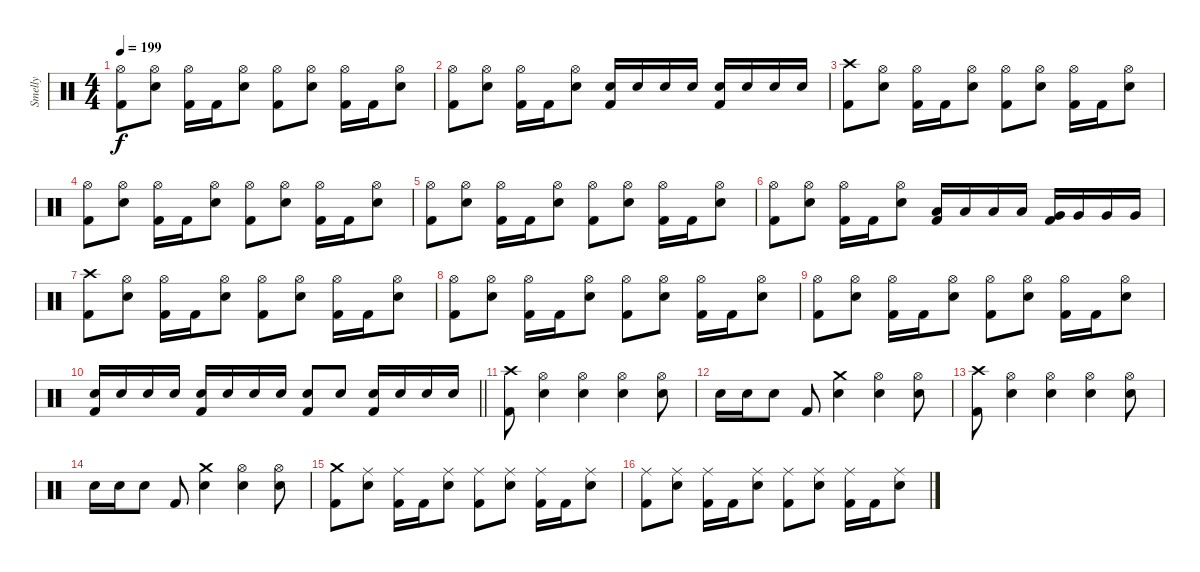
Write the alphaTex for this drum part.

\track ("Smelly" "Smelly") {instrument percussion}
\staff {score}
\articulation defaults
\ts (4 4)
\tempo 199
\clef neutral
\ks c
("Hi-Hat (open)" "Kick (hit) 2").8{dy f} ("Hi-Hat (open)" "Electric Snare (hit)").8 ("Hi-Hat (open)" "Kick (hit) 2").16 "Kick (hit) 2".16 ("Hi-Hat (open)" "Electric Snare (hit)").8 ("Hi-Hat (open)" "Kick (hit) 2").8 ("Hi-Hat (open)" "Electric Snare (hit)").8 ("Hi-Hat (open)" "Kick (hit) 2").16 "Kick (hit) 2".16 ("Hi-Hat (open)" "Electric Snare (hit)").8 |
("Hi-Hat (open)" "Kick (hit) 2").8 ("Hi-Hat (open)" "Electric Snare (hit)").8 ("Hi-Hat (open)" "Kick (hit) 2").16 "Kick (hit) 2".16 ("Hi-Hat (open)" "Electric Snare (hit)").8 ("Electric Snare (hit)" "Kick (hit) 2").16 "Electric Snare (hit)".16 "Electric Snare (hit)".16 "Electric Snare (hit)".16 ("Electric Snare (hit)" "Kick (hit) 2").16 "Electric Snare (hit)".16 "Electric Snare (hit)".16 "Electric Snare (hit)".16 |
("Crash high (hit)" "Kick (hit) 2").8 ("Hi-Hat (open)" "Electric Snare (hit)").8 ("Hi-Hat (open)" "Kick (hit) 2").16 "Kick (hit) 2".16 ("Hi-Hat (open)" "Electric Snare (hit)").8 ("Hi-Hat (open)" "Kick (hit) 2").8 ("Hi-Hat (open)" "Electric Snare (hit)").8 ("Hi-Hat (open)" "Kick (hit) 2").16 "Kick (hit) 2".16 ("Hi-Hat (open)" "Electric Snare (hit)").8 |
("Hi-Hat (open)" "Kick (hit) 2").8 ("Hi-Hat (open)" "Electric Snare (hit)").8 ("Hi-Hat (open)" "Kick (hit) 2").16 "Kick (hit) 2".16 ("Hi-Hat (open)" "Electric Snare (hit)").8 ("Hi-Hat (open)" "Kick (hit) 2").8 ("Hi-Hat (open)" "Electric Snare (hit)").8 ("Hi-Hat (open)" "Kick (hit) 2").16 "Kick (hit) 2".16 ("Hi-Hat (open)" "Electric Snare (hit)").8 |
("Hi-Hat (open)" "Kick (hit) 2").8 ("Hi-Hat (open)" "Electric Snare (hit)").8 ("Hi-Hat (open)" "Kick (hit) 2").16 "Kick (hit) 2".16 ("Hi-Hat (open)" "Electric Snare (hit)").8 ("Hi-Hat (open)" "Kick (hit) 2").8 ("Hi-Hat (open)" "Electric Snare (hit)").8 ("Hi-Hat (open)" "Kick (hit) 2").16 "Kick (hit) 2".16 ("Hi-Hat (open)" "Electric Snare (hit)").8 |
("Hi-Hat (open)" "Kick (hit) 2").8 ("Hi-Hat (open)" "Electric Snare (hit)").8 ("Hi-Hat (open)" "Kick (hit) 2").16 "Kick (hit) 2".16 ("Hi-Hat (open)" "Electric Snare (hit)").8 ("Low Tom (hit)" "Kick (hit) 2").16 "Low Tom (hit)".16 "Low Tom (hit)".16 "Low Tom (hit)".16 ("Very Low Tom (hit)" "Kick (hit) 2").16 "Very Low Tom (hit)".16 "Very Low Tom (hit)".16 "Very Low Tom (hit)".16 |
("Crash high (hit)" "Kick (hit) 2").8 ("Hi-Hat (open)" "Electric Snare (hit)").8 ("Hi-Hat (open)" "Kick (hit) 2").16 "Kick (hit) 2".16 ("Hi-Hat (open)" "Electric Snare (hit)").8 ("Hi-Hat (open)" "Kick (hit) 2").8 ("Hi-Hat (open)" "Electric Snare (hit)").8 ("Hi-Hat (open)" "Kick (hit) 2").16 "Kick (hit) 2".16 ("Hi-Hat (open)" "Electric Snare (hit)").8 |
("Hi-Hat (open)" "Kick (hit) 2").8 ("Hi-Hat (open)" "Electric Snare (hit)").8 ("Hi-Hat (open)" "Kick (hit) 2").16 "Kick (hit) 2".16 ("Hi-Hat (open)" "Electric Snare (hit)").8 ("Hi-Hat (open)" "Kick (hit) 2").8 ("Hi-Hat (open)" "Electric Snare (hit)").8 ("Hi-Hat (open)" "Kick (hit) 2").16 "Kick (hit) 2".16 ("Hi-Hat (open)" "Electric Snare (hit)").8 |
("Hi-Hat (open)" "Kick (hit) 2").8 ("Hi-Hat (open)" "Electric Snare (hit)").8 ("Hi-Hat (open)" "Kick (hit) 2").16 "Kick (hit) 2".16 ("Hi-Hat (open)" "Electric Snare (hit)").8 ("Hi-Hat (open)" "Kick (hit) 2").8 ("Hi-Hat (open)" "Electric Snare (hit)").8 ("Hi-Hat (open)" "Kick (hit) 2").16 "Kick (hit) 2".16 ("Hi-Hat (open)" "Electric Snare (hit)").8 |
\barLineRight lightlight
("Electric Snare (hit)" "Kick (hit) 2").16 "Electric Snare (hit)".16 "Electric Snare (hit)".16 "Electric Snare (hit)".16 ("Electric Snare (hit)" "Kick (hit) 2").16 "Electric Snare (hit)".16 "Electric Snare (hit)".16 "Electric Snare (hit)".16 ("Electric Snare (hit)" "Kick (hit) 2").8 "Electric Snare (hit)".8 ("Electric Snare (hit)" "Kick (hit) 2").16 "Electric Snare (hit)".16 "Electric Snare (hit)".16 "Electric Snare (hit)".16 |
\section ("" "")
("Crash high (hit)" "Kick (hit) 2").8 ("Hi-Hat (open)" "Electric Snare (hit)").4 ("Hi-Hat (open)" "Electric Snare (hit)").4 ("Hi-Hat (open)" "Electric Snare (hit)").4 ("Hi-Hat (open)" "Electric Snare (hit)").8 |
"Electric Snare (hit)".16 "Electric Snare (hit)".16 "Electric Snare (hit)".8 "Kick (hit) 2".8 ("Crash medium (hit)" "Electric Snare (hit)").4 ("Hi-Hat (open)" "Electric Snare (hit)").4 ("Hi-Hat (open)" "Electric Snare (hit)").8 |
("Crash high (hit)" "Kick (hit) 2").8 ("Hi-Hat (open)" "Electric Snare (hit)").4 ("Hi-Hat (open)" "Electric Snare (hit)").4 ("Hi-Hat (open)" "Electric Snare (hit)").4 ("Hi-Hat (open)" "Electric Snare (hit)").8 |
"Electric Snare (hit)".16 "Electric Snare (hit)".16 "Electric Snare (hit)".8 "Kick (hit) 2".8 ("Crash medium (hit)" "Electric Snare (hit)").4 ("Hi-Hat (open)" "Electric Snare (hit)").4 ("Hi-Hat (open)" "Electric Snare (hit)").8 |
("Crash medium (hit)" "Kick (hit) 2").8 ("Ride (middle)" "Electric Snare (hit)").8 ("Ride (middle)" "Kick (hit) 2").16 "Kick (hit) 2".16 ("Ride (middle)" "Electric Snare (hit)").8 ("Ride (middle)" "Kick (hit) 2").8 ("Ride (middle)" "Electric Snare (hit)").8 ("Ride (middle)" "Kick (hit) 2").16 "Kick (hit) 2".16 ("Ride (middle)" "Electric Snare (hit)").8 |
("Ride (middle)" "Kick (hit) 2").8 ("Ride (middle)" "Electric Snare (hit)").8 ("Ride (middle)" "Kick (hit) 2").16 "Kick (hit) 2".16 ("Ride (middle)" "Electric Snare (hit)").8 ("Ride (middle)" "Kick (hit) 2").8 ("Ride (middle)" "Electric Snare (hit)").8 ("Ride (middle)" "Kick (hit) 2").16 "Kick (hit) 2".16 ("Ride (middle)" "Electric Snare (hit)").8
